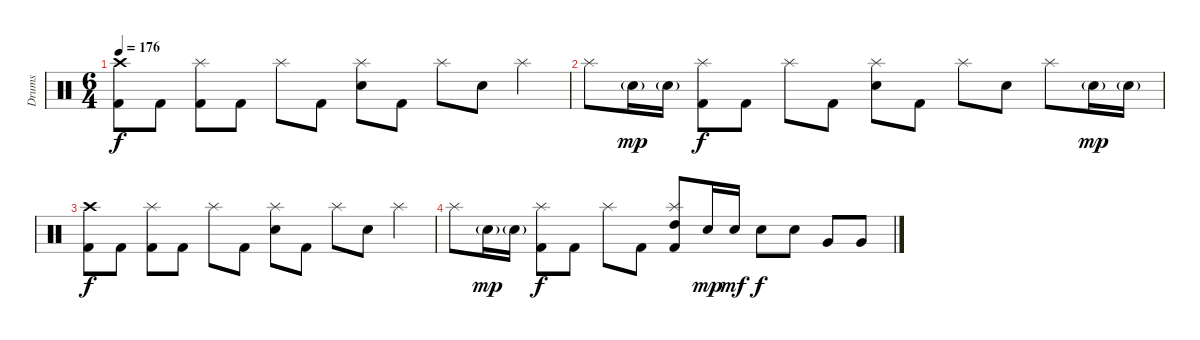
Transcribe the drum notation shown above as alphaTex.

\track ("Drums" "Drums") {instrument percussion}
\staff {score}
\articulation defaults
\ts (6 4)
\tempo 176
\clef neutral
\ks c
("Crash high (hit)" "Kick (hit) 2").8{dy f} "Kick (hit) 2".8 ("Splash (hit)" "Kick (hit) 2").8 "Kick (hit) 2".8 "Splash (hit)".8 "Kick (hit) 2".8 ("Splash (hit)" "Snare (hit) 2").8 "Kick (hit) 2".8 "Splash (hit)".8 "Snare (hit) 2".8 "Splash (hit)".4 |
"Splash (hit)".8 "Snare (hit) 2"{g}.16{dy mp} "Snare (hit) 2"{g}.16 ("Splash (hit)" "Kick (hit) 2").8{dy f} "Kick (hit) 2".8 "Splash (hit)".8 "Kick (hit) 2".8 ("Splash (hit)" "Snare (hit) 2").8 "Kick (hit) 2".8 "Splash (hit)".8 "Snare (hit) 2".8 "Splash (hit)".8 "Snare (hit) 2"{g}.16{dy mp} "Snare (hit) 2"{g}.16 |
("Crash high (hit)" "Kick (hit) 2").8{dy f} "Kick (hit) 2".8 ("Splash (hit)" "Kick (hit) 2").8 "Kick (hit) 2".8 "Splash (hit)".8 "Kick (hit) 2".8 ("Splash (hit)" "Snare (hit) 2").8 "Kick (hit) 2".8 "Splash (hit)".8 "Snare (hit) 2".8 "Splash (hit)".4 |
"Splash (hit)".8 "Snare (hit) 2"{g}.16{dy mp} "Snare (hit) 2"{g}.16 ("Splash (hit)" "Kick (hit) 2").8{dy f} "Kick (hit) 2".8 "Splash (hit)".8 "Kick (hit) 2".8 ("Splash (hit)" "High Tom (hit)" "Kick (hit) 2").8 "Snare (hit) 2".16{dy mp} "Snare (hit) 2".16{dy mf} "Snare (hit) 2".8{dy f} "Snare (hit) 2".8 "Very Low Tom (hit)".8 "Very Low Tom (hit)".8
